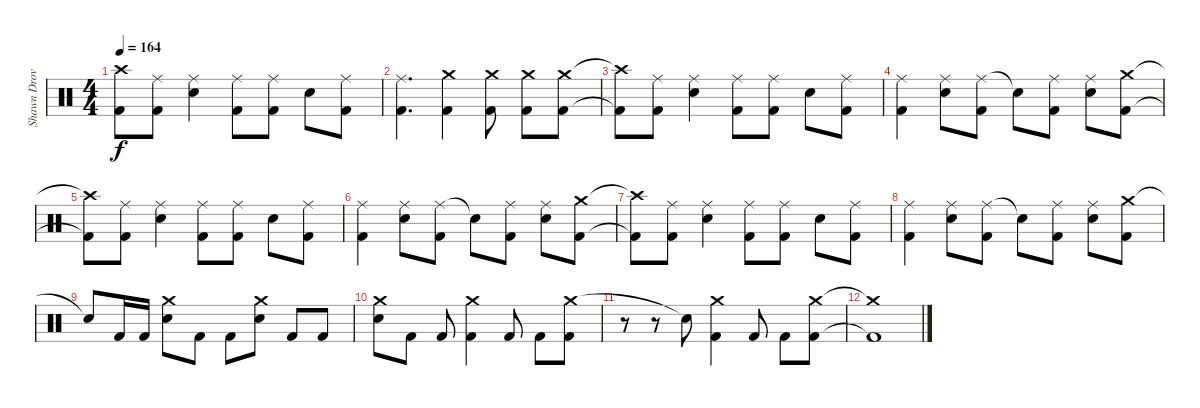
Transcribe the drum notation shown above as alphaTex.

\track ("Shawn Drover" "Shawn Drov") {instrument percussion}
\staff {score}
\articulation defaults
\ts (4 4)
\tempo 164
\clef neutral
\ks c
("Crash high (hit)"{t} "Kick (hit) 2"{t}).8{dy f} ("Ride (middle)" "Kick (hit) 2").8 ("Ride (middle)" "Snare (hit) 2").4 ("Ride (middle)" "Kick (hit) 2").8 ("Ride (middle)" "Kick (hit) 2").8 "Snare (hit) 2".8 ("Ride (middle)" "Kick (hit) 2").8 |
("Ride (middle)" "Kick (hit) 2").4{d} ("Crash medium (hit)" "Kick (hit) 2").4 ("Crash medium (hit)" "Kick (hit) 2").8 ("Crash medium (hit)" "Kick (hit) 2").8 ("Crash medium (hit)" "Kick (hit) 2").8 |
("Crash high (hit)"{t} "Kick (hit) 2"{t}).8 ("Ride (middle)" "Kick (hit) 2").8 ("Ride (middle)" "Snare (hit) 2").4 ("Ride (middle)" "Kick (hit) 2").8 ("Ride (middle)" "Kick (hit) 2").8 "Snare (hit) 2".8 ("Ride (middle)" "Kick (hit) 2").8 |
("Ride (middle)" "Kick (hit) 2").4 ("Ride (middle)" "Snare (hit) 2").8 ("Ride (middle)" "Kick (hit) 2").8 "Snare (hit)"{t}.8 ("Ride (middle)" "Kick (hit) 2").8 ("Ride (middle)" "Snare (hit) 2").8 ("Crash medium (hit)" "Kick (hit) 2").8 |
("Crash high (hit)"{t} "Kick (hit) 2"{t}).8 ("Ride (middle)" "Kick (hit) 2").8 ("Ride (middle)" "Snare (hit) 2").4 ("Ride (middle)" "Kick (hit) 2").8 ("Ride (middle)" "Kick (hit) 2").8 "Snare (hit) 2".8 ("Ride (middle)" "Kick (hit) 2").8 |
("Ride (middle)" "Kick (hit) 2").4 ("Ride (middle)" "Snare (hit) 2").8 ("Ride (middle)" "Kick (hit) 2").8 "Snare (hit)"{t}.8 ("Ride (middle)" "Kick (hit) 2").8 ("Ride (middle)" "Snare (hit) 2").8 ("Crash medium (hit)" "Kick (hit) 2").8 |
("Crash high (hit)"{t} "Kick (hit) 2"{t}).8 ("Ride (middle)" "Kick (hit) 2").8 ("Ride (middle)" "Snare (hit) 2").4 ("Ride (middle)" "Kick (hit) 2").8 ("Ride (middle)" "Kick (hit) 2").8 "Snare (hit) 2".8 ("Ride (middle)" "Kick (hit) 2").8 |
("Ride (middle)" "Kick (hit) 2").4 ("Ride (middle)" "Snare (hit) 2").8 ("Ride (middle)" "Kick (hit) 2").8 "Snare (hit)"{t}.8 ("Ride (middle)" "Kick (hit) 2").8 ("Ride (middle)" "Snare (hit) 2").8 ("Crash medium (hit)" "Kick (hit) 2").8 |
"Snare (hit)"{t}.8 "Kick (hit) 2".16 "Kick (hit) 2".16 ("Crash medium (hit)" "Snare (hit) 2").8 "Kick (hit) 2".8 "Kick (hit) 2".8 ("Crash medium (hit)" "Snare (hit) 2").8 "Kick (hit) 2".8 "Kick (hit) 2".8 |
("Crash medium (hit)" "Snare (hit) 2").8 "Kick (hit) 2".8 "Kick (hit) 2".8 ("Crash medium (hit)" "Kick (hit) 2").4 "Kick (hit) 2".8 "Kick (hit) 2".8 ("Crash medium (hit)" "Kick (hit) 2").8 |
r.8 r.8 "Snare (hit)"{t}.8 ("Crash medium (hit)" "Kick (hit) 2").4 "Kick (hit) 2".8 "Kick (hit) 2".8 ("Crash medium (hit)" "Kick (hit) 2").8 |
("Crash medium (hit)"{t} "Kick (hit) 2"{t}).1
